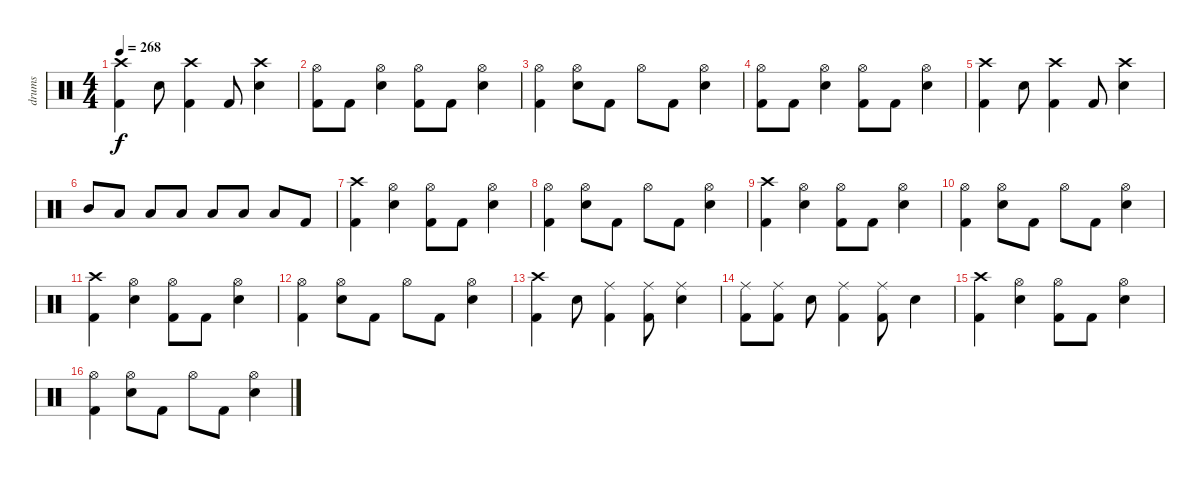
\track ("drums" "drums") {instrument percussion}
\staff {score}
\articulation defaults
\ts (4 4)
\tempo 268
\clef neutral
\ks c
("Crash high (hit)" "Kick (hit) 2").4{dy f} "Electric Snare (hit)".8 ("Crash high (hit)" "Kick (hit) 2").4 "Kick (hit) 2".8 ("Crash high (hit)" "Electric Snare (hit)").4 |
("Hi-Hat (open)" "Kick (hit) 2").8 "Kick (hit) 2".8 ("Hi-Hat (open)" "Electric Snare (hit)").4 ("Hi-Hat (open)" "Kick (hit) 2").8 "Kick (hit) 2".8 ("Hi-Hat (open)" "Electric Snare (hit)").4 |
("Hi-Hat (open)" "Kick (hit) 2").4 ("Hi-Hat (open)" "Electric Snare (hit)").8 "Kick (hit) 2".8 "Hi-Hat (open)".8 "Kick (hit) 2".8 ("Hi-Hat (open)" "Electric Snare (hit)").4 |
("Hi-Hat (open)" "Kick (hit) 2").8 "Kick (hit) 2".8 ("Hi-Hat (open)" "Electric Snare (hit)").4 ("Hi-Hat (open)" "Kick (hit) 2").8 "Kick (hit) 2".8 ("Hi-Hat (open)" "Electric Snare (hit)").4 |
("Crash high (hit)" "Kick (hit) 2").4 "Electric Snare (hit)".8 ("Crash high (hit)" "Kick (hit) 2").4 "Kick (hit) 2".8 ("Crash high (hit)" "Electric Snare (hit)").4 |
"Mid Tom (hit)".8 "Low Tom (hit)".8 "Low Tom (hit)".8 "Low Floor Tom (hit)".8 "Low Floor Tom (hit)".8 "Low Tom (hit)".8 "Low Tom (hit)".8 "Kick (hit) 2".8 |
("Crash high (hit)" "Kick (hit) 2").4 ("Hi-Hat (open)" "Electric Snare (hit)").4 ("Hi-Hat (open)" "Kick (hit) 2").8 "Kick (hit) 2".8 ("Hi-Hat (open)" "Electric Snare (hit)").4 |
("Hi-Hat (open)" "Kick (hit) 2").4 ("Hi-Hat (open)" "Electric Snare (hit)").8 "Kick (hit) 2".8 "Hi-Hat (open)".8 "Kick (hit) 2".8 ("Hi-Hat (open)" "Electric Snare (hit)").4 |
("Crash high (hit)" "Kick (hit) 2").4 ("Hi-Hat (open)" "Electric Snare (hit)").4 ("Hi-Hat (open)" "Kick (hit) 2").8 "Kick (hit) 2".8 ("Hi-Hat (open)" "Electric Snare (hit)").4 |
("Hi-Hat (open)" "Kick (hit) 2").4 ("Hi-Hat (open)" "Electric Snare (hit)").8 "Kick (hit) 2".8 "Hi-Hat (open)".8 "Kick (hit) 2".8 ("Hi-Hat (open)" "Electric Snare (hit)").4 |
("Crash high (hit)" "Kick (hit) 2").4 ("Hi-Hat (open)" "Electric Snare (hit)").4 ("Hi-Hat (open)" "Kick (hit) 2").8 "Kick (hit) 2".8 ("Hi-Hat (open)" "Electric Snare (hit)").4 |
("Hi-Hat (open)" "Kick (hit) 2").4 ("Hi-Hat (open)" "Electric Snare (hit)").8 "Kick (hit) 2".8 "Hi-Hat (open)".8 "Kick (hit) 2".8 ("Hi-Hat (open)" "Electric Snare (hit)").4 |
("Crash high (hit)" "Kick (hit) 2").4 "Electric Snare (hit)".8 ("Ride (middle)" "Kick (hit) 2").4 ("Ride (middle)" "Kick (hit) 2").8 ("Ride (middle)" "Electric Snare (hit)").4 |
("Ride (middle)" "Kick (hit) 2").8 ("Ride (middle)" "Kick (hit) 2").8 "Electric Snare (hit)".8 ("Ride (middle)" "Kick (hit) 2").4 ("Ride (middle)" "Kick (hit) 2").8 "Electric Snare (hit)".4 |
("Crash high (hit)" "Kick (hit) 2").4 ("Hi-Hat (open)" "Electric Snare (hit)").4 ("Hi-Hat (open)" "Kick (hit) 2").8 "Kick (hit) 2".8 ("Hi-Hat (open)" "Electric Snare (hit)").4 |
("Hi-Hat (open)" "Kick (hit) 2").4 ("Hi-Hat (open)" "Electric Snare (hit)").8 "Kick (hit) 2".8 "Hi-Hat (open)".8 "Kick (hit) 2".8 ("Hi-Hat (open)" "Electric Snare (hit)").4
